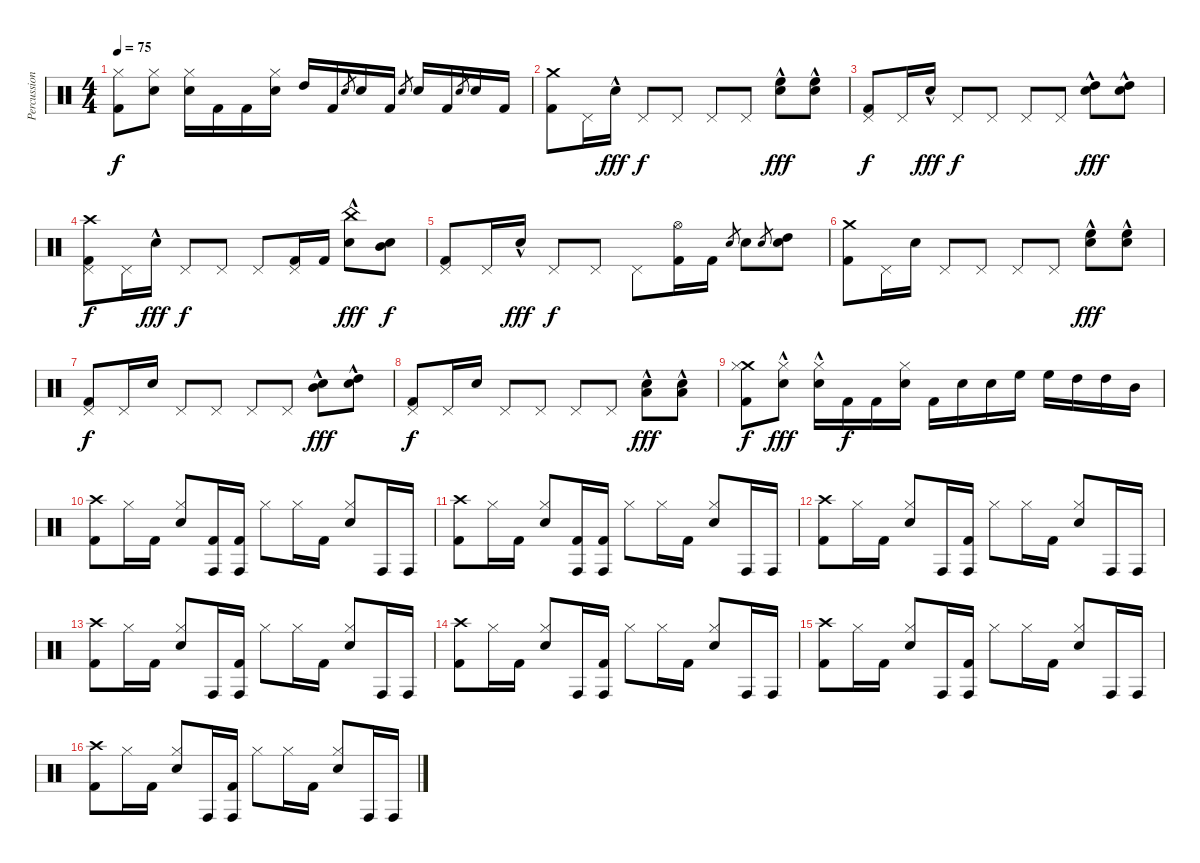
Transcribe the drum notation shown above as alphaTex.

\track ("Percussion" "Percussion") {instrument percussion}
\staff {score}
\articulation defaults
\ts (4 4)
\tempo 75
\clef neutral
\ks c
("Hi-Hat (closed)" "Kick (hit) 2").8{dy f} ("Hi-Hat (closed)" "Electric Snare (hit)").8 ("Hi-Hat (closed)" "Electric Snare (hit)").16 "Kick (hit) 2".16 "Kick (hit) 2".16 ("Hi-Hat (closed)" "Electric Snare (hit)").16 "High Tom (hit)".16 "Kick (hit) 2".16 "Electric Snare (hit)".8{gr} "Electric Snare (hit)".16 "Kick (hit) 2".16 "Electric Snare (hit)".8{gr} "Electric Snare (hit)".16 "Kick (hit) 2".16 "Electric Snare (hit)".8{gr} "Electric Snare (hit)".16 "Kick (hit) 2".16 |
("Crash medium (hit)" "Kick (hit) 2").8 "Pedal Hi-Hat (hit)".16 "Electric Snare (hit)"{hac}.16{dy fff} "Pedal Hi-Hat (hit)".8{dy f} "Pedal Hi-Hat (hit)".8 "Pedal Hi-Hat (hit)".8 "Pedal Hi-Hat (hit)".8 ("High Floor Tom (hit)"{hac} "Electric Snare (hit)").8{dy fff} ("High Floor Tom (hit)"{hac} "Electric Snare (hit)").8 |
("Pedal Hi-Hat (hit)" "Kick (hit) 2").8{dy f} "Pedal Hi-Hat (hit)".16 "Electric Snare (hit)"{hac}.16{dy fff} "Pedal Hi-Hat (hit)".8{dy f} "Pedal Hi-Hat (hit)".8 "Pedal Hi-Hat (hit)".8 "Pedal Hi-Hat (hit)".8 ("High Tom (hit)"{hac} "Electric Snare (hit)").8{dy fff} ("High Tom (hit)"{hac} "Electric Snare (hit)").8 |
("Crash high (hit)" "Pedal Hi-Hat (hit)" "Kick (hit) 2").8{dy f} "Pedal Hi-Hat (hit)".16 "Electric Snare (hit)"{hac}.16{dy fff} "Pedal Hi-Hat (hit)".8{dy f} "Pedal Hi-Hat (hit)".8 "Pedal Hi-Hat (hit)".8 ("Pedal Hi-Hat (hit)" "Kick (hit) 2").16 "Kick (hit) 2".16 ("China (hit)" "Electric Snare (hit)"{hac}).8{dy fff} ("Mid Tom (hit)" "Electric Snare (hit)").8{dy f} |
("Pedal Hi-Hat (hit)" "Kick (hit) 2").8 "Pedal Hi-Hat (hit)".16 "Electric Snare (hit)"{hac}.16{dy fff} "Pedal Hi-Hat (hit)".8{dy f} "Pedal Hi-Hat (hit)".8 "Pedal Hi-Hat (hit)".8 ("Hi-Hat (open)" "Kick (hit) 2").16 "Kick (hit) 2".16 "Electric Snare (hit)".8{gr} "Electric Snare (hit)".8 "Electric Snare (hit)".8{gr} ("High Tom (hit)" "Electric Snare (hit)").8 |
("Crash medium (hit)" "Kick (hit) 2").8 "Pedal Hi-Hat (hit)".16 "Electric Snare (hit)".16 "Pedal Hi-Hat (hit)".8 "Pedal Hi-Hat (hit)".8 "Pedal Hi-Hat (hit)".8 "Pedal Hi-Hat (hit)".8 ("High Floor Tom (hit)"{hac} "Electric Snare (hit)").8{dy fff} ("High Floor Tom (hit)"{hac} "Electric Snare (hit)").8 |
("Pedal Hi-Hat (hit)" "Kick (hit) 2").8{dy f} "Pedal Hi-Hat (hit)".16 "Electric Snare (hit)".16 "Pedal Hi-Hat (hit)".8 "Pedal Hi-Hat (hit)".8 "Pedal Hi-Hat (hit)".8 "Pedal Hi-Hat (hit)".8 ("Mid Tom (hit)"{hac} "Electric Snare (hit)").8{dy fff} ("High Tom (hit)"{hac} "Electric Snare (hit)").8 |
("Pedal Hi-Hat (hit)" "Kick (hit) 2").8{dy f} "Pedal Hi-Hat (hit)".16 "Electric Snare (hit)".16 "Pedal Hi-Hat (hit)".8 "Pedal Hi-Hat (hit)".8 "Pedal Hi-Hat (hit)".8 "Pedal Hi-Hat (hit)".8 ("Low Tom (hit)"{hac} "Electric Snare (hit)").8{dy fff} ("Low Tom (hit)"{hac} "Electric Snare (hit)").8 |
("Crash medium (hit)" "Hi-Hat (closed)" "Kick (hit) 2").8{dy f} ("Hi-Hat (closed)" "Electric Snare (hit)"{hac}).8{dy fff} ("Hi-Hat (closed)" "Electric Snare (hit)"{hac}).16 "Kick (hit) 2".16{dy f} "Kick (hit) 2".16 ("Hi-Hat (closed)" "Electric Snare (hit)").16 "Kick (hit) 2".16 "Electric Snare (hit)".16 "Electric Snare (hit)".16 "High Floor Tom (hit)".16 "High Floor Tom (hit)".16 "High Tom (hit)".16 "High Tom (hit)".16 "Mid Tom (hit)".16 |
("Crash high (hit)" "Kick (hit) 2").8 "Hi-Hat (closed)".16 "Kick (hit) 2".16 ("Hi-Hat (closed)" "Electric Snare (hit)").8 ("Conga high (hit)" "Kick (hit) 2").16 ("Conga high (hit)" "Kick (hit) 2").16 "Hi-Hat (closed)".8 "Hi-Hat (closed)".16 "Kick (hit) 2".16 ("Hi-Hat (closed)" "Electric Snare (hit)").8 "Conga high (hit)".16 "Conga high (hit)".16 |
("Crash high (hit)" "Kick (hit) 2").8 "Hi-Hat (closed)".16 "Kick (hit) 2".16 ("Hi-Hat (closed)" "Electric Snare (hit)").8 ("Conga high (hit)" "Kick (hit) 2").16 ("Conga high (hit)" "Kick (hit) 2").16 "Hi-Hat (closed)".8 "Hi-Hat (closed)".16 "Kick (hit) 2".16 ("Hi-Hat (closed)" "Electric Snare (hit)").8 "Conga high (hit)".16 "Conga high (hit)".16 |
("Crash high (hit)" "Kick (hit) 2").8 "Hi-Hat (closed)".16 "Kick (hit) 2".16 ("Hi-Hat (closed)" "Electric Snare (hit)").8 "Conga high (hit)".16 ("Conga high (hit)" "Kick (hit) 2").16 "Hi-Hat (closed)".8 "Hi-Hat (closed)".16 "Kick (hit) 2".16 ("Hi-Hat (closed)" "Electric Snare (hit)").8 "Conga high (hit)".16 "Conga high (hit)".16 |
("Crash high (hit)" "Kick (hit) 2").8 "Hi-Hat (closed)".16 "Kick (hit) 2".16 ("Hi-Hat (closed)" "Electric Snare (hit)").8 "Conga high (hit)".16 ("Conga high (hit)" "Kick (hit) 2").16 "Hi-Hat (closed)".8 "Hi-Hat (closed)".16 "Kick (hit) 2".16 ("Hi-Hat (closed)" "Electric Snare (hit)").8 "Conga high (hit)".16 "Conga high (hit)".16 |
("Crash high (hit)" "Kick (hit) 2").8 "Hi-Hat (closed)".16 "Kick (hit) 2".16 ("Hi-Hat (closed)" "Electric Snare (hit)").8 "Conga high (hit)".16 ("Conga high (hit)" "Kick (hit) 2").16 "Hi-Hat (closed)".8 "Hi-Hat (closed)".16 "Kick (hit) 2".16 ("Hi-Hat (closed)" "Electric Snare (hit)").8 "Conga high (hit)".16 "Conga high (hit)".16 |
("Crash high (hit)" "Kick (hit) 2").8 "Hi-Hat (closed)".16 "Kick (hit) 2".16 ("Hi-Hat (closed)" "Electric Snare (hit)").8 "Conga high (hit)".16 ("Conga high (hit)" "Kick (hit) 2").16 "Hi-Hat (closed)".8 "Hi-Hat (closed)".16 "Kick (hit) 2".16 ("Hi-Hat (closed)" "Electric Snare (hit)").8 "Conga high (hit)".16 "Conga high (hit)".16 |
("Crash high (hit)" "Kick (hit) 2").8 "Hi-Hat (closed)".16 "Kick (hit) 2".16 ("Hi-Hat (closed)" "Electric Snare (hit)").8 "Conga high (hit)".16 ("Conga high (hit)" "Kick (hit) 2").16 "Hi-Hat (closed)".8 "Hi-Hat (closed)".16 "Kick (hit) 2".16 ("Hi-Hat (closed)" "Electric Snare (hit)").8 "Conga high (hit)".16 "Conga high (hit)".16
